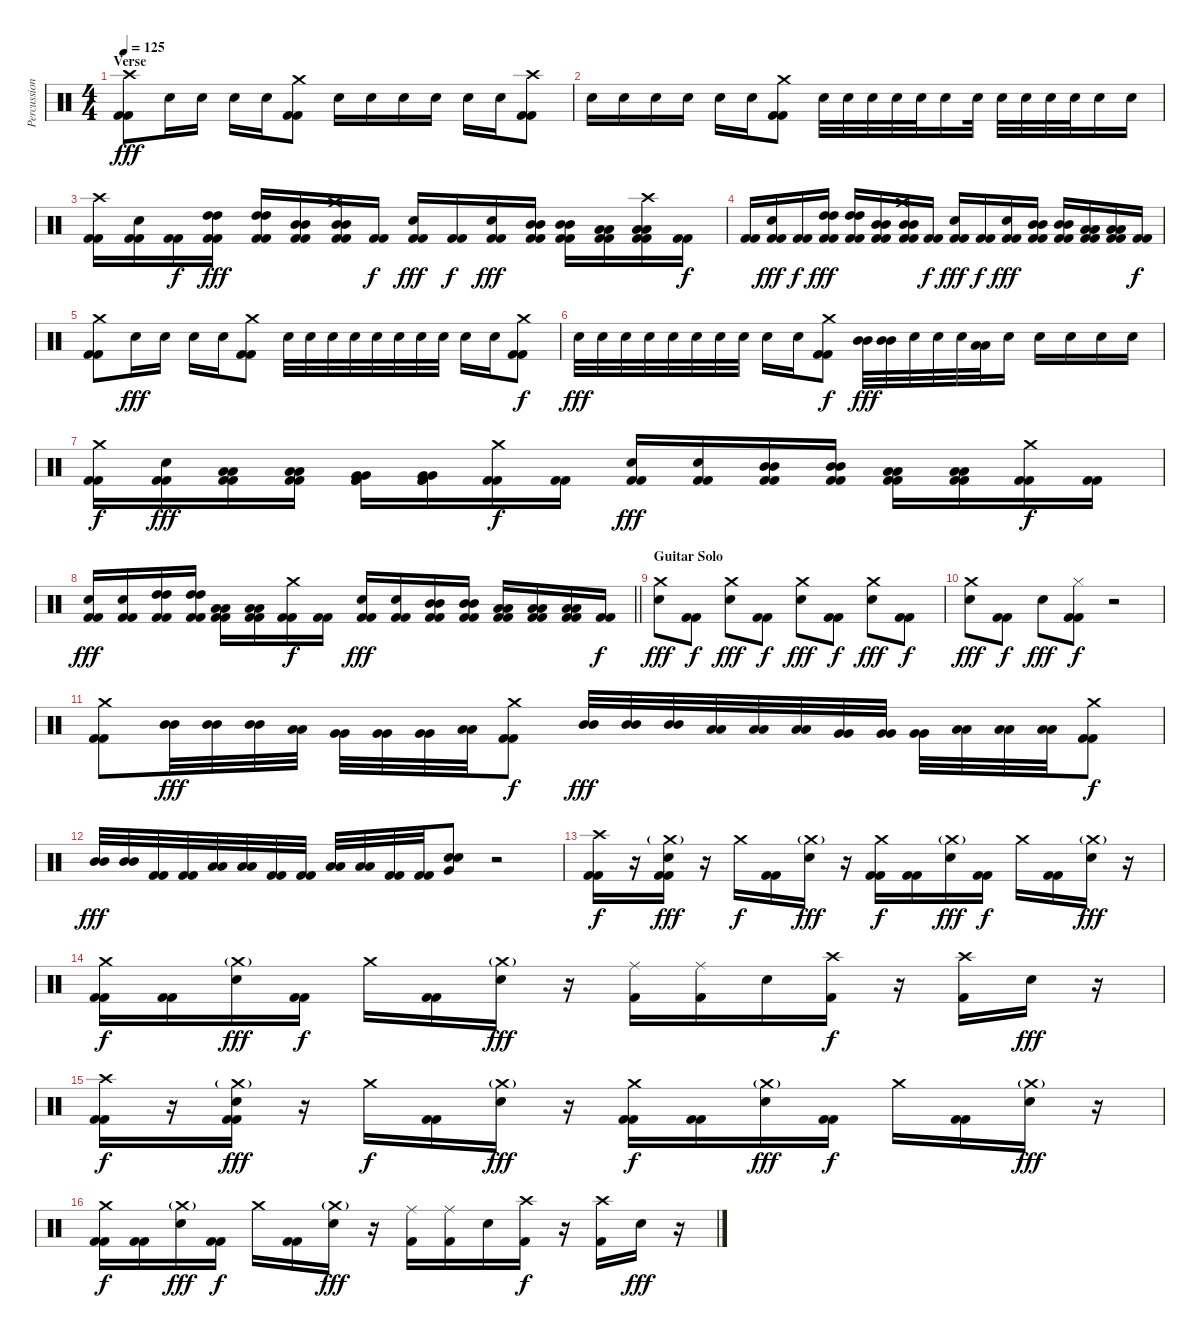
\track ("Percussion" "Percussion") {solo instrument percussion}
\staff {score}
\articulation defaults
\ts (4 4)
\section ("" "Verse")
\tempo 125
\clef neutral
\ks c
("Crash high (hit)" "Kick (hit) 2" "Kick (hit) 2").8{dy fff} "Electric Snare (hit)".16 "Electric Snare (hit)".16 "Electric Snare (hit)".16 "Electric Snare (hit)".16 ("Crash medium (hit)" "Kick (hit) 2" "Kick (hit) 2").8 "Electric Snare (hit)".16 "Electric Snare (hit)".16 "Electric Snare (hit)".16 "Electric Snare (hit)".16 "Electric Snare (hit)".16 "Electric Snare (hit)".16 ("Crash high (hit)" "Kick (hit) 2" "Kick (hit) 2").8 |
"Electric Snare (hit)".16 "Electric Snare (hit)".16 "Electric Snare (hit)".16 "Electric Snare (hit)".16 "Electric Snare (hit)".16 "Electric Snare (hit)".16 ("Crash medium (hit)" "Kick (hit) 2" "Kick (hit) 2").8 "Electric Snare (hit)".32 "Electric Snare (hit)".32 "Electric Snare (hit)".32 "Electric Snare (hit)".32 "Electric Snare (hit)".32 "Electric Snare (hit)".16 "Electric Snare (hit)".32 "Electric Snare (hit)".32 "Electric Snare (hit)".32 "Electric Snare (hit)".32 "Electric Snare (hit)".32 "Electric Snare (hit)".16 "Electric Snare (hit)".16 |
("Crash high (hit)" "Kick (hit) 2" "Kick (hit) 2").16 ("Electric Snare (hit)" "Kick (hit) 2" "Kick (hit) 2").16 ("Kick (hit) 2" "Kick (hit) 2").16{dy f} ("High Tom (hit)" "High Tom (hit)" "Kick (hit) 2" "Kick (hit) 2").16{dy fff} ("High Tom (hit)" "High Tom (hit)" "Kick (hit) 2" "Kick (hit) 2").16 ("Mid Tom (hit)" "Mid Tom (hit)" "Kick (hit) 2" "Kick (hit) 2").16 ("Crash medium (hit)" "Mid Tom (hit)" "Mid Tom (hit)" "Kick (hit) 2" "Kick (hit) 2").16 ("Kick (hit) 2" "Kick (hit) 2").16{dy f} ("Electric Snare (hit)" "Kick (hit) 2" "Kick (hit) 2").16{dy fff} ("Kick (hit) 2" "Kick (hit) 2").16{dy f} ("Electric Snare (hit)" "Kick (hit) 2" "Kick (hit) 2").16{dy fff} ("Mid Tom (hit)" "Mid Tom (hit)" "Kick (hit) 2" "Kick (hit) 2").16 ("Mid Tom (hit)" "Mid Tom (hit)" "Kick (hit) 2" "Kick (hit) 2").16 ("Low Tom (hit)" "Low Tom (hit)" "Kick (hit) 2" "Kick (hit) 2").16 ("Crash high (hit)" "Low Tom (hit)" "Low Tom (hit)" "Kick (hit) 2" "Kick (hit) 2").16 ("Kick (hit) 2" "Kick (hit) 2").16{dy f} |
("Kick (hit) 2" "Kick (hit) 2").16 ("Electric Snare (hit)" "Kick (hit) 2" "Kick (hit) 2").16{dy fff} ("Kick (hit) 2" "Kick (hit) 2").16{dy f} ("High Tom (hit)" "High Tom (hit)" "Kick (hit) 2" "Kick (hit) 2").16{dy fff} ("High Tom (hit)" "High Tom (hit)" "Kick (hit) 2" "Kick (hit) 2").16 ("Mid Tom (hit)" "Mid Tom (hit)" "Kick (hit) 2" "Kick (hit) 2").16 ("Crash medium (hit)" "Mid Tom (hit)" "Mid Tom (hit)" "Kick (hit) 2" "Kick (hit) 2").16 ("Kick (hit) 2" "Kick (hit) 2").16{dy f} ("Electric Snare (hit)" "Kick (hit) 2" "Kick (hit) 2").16{dy fff} ("Kick (hit) 2" "Kick (hit) 2").16{dy f} ("Electric Snare (hit)" "Kick (hit) 2" "Kick (hit) 2").16{dy fff} ("Mid Tom (hit)" "Mid Tom (hit)" "Kick (hit) 2" "Kick (hit) 2").16 ("Mid Tom (hit)" "Mid Tom (hit)" "Kick (hit) 2" "Kick (hit) 2").16 ("Low Tom (hit)" "Low Tom (hit)" "Kick (hit) 2" "Kick (hit) 2").16 ("Low Tom (hit)" "Low Tom (hit)" "Kick (hit) 2" "Kick (hit) 2").16 ("Kick (hit) 2" "Kick (hit) 2").16{dy f} |
("Crash medium (hit)" "Kick (hit) 2" "Kick (hit) 2").8 "Electric Snare (hit)".16{dy fff} "Electric Snare (hit)".16 "Electric Snare (hit)".16 "Electric Snare (hit)".16 ("Crash medium (hit)" "Kick (hit) 2" "Kick (hit) 2").8 "Electric Snare (hit)".32 "Electric Snare (hit)".32 "Electric Snare (hit)".32 "Electric Snare (hit)".32 "Electric Snare (hit)".32 "Electric Snare (hit)".32 "Electric Snare (hit)".32 "Electric Snare (hit)".32 "Electric Snare (hit)".16 "Electric Snare (hit)".16 ("Crash medium (hit)" "Kick (hit) 2" "Kick (hit) 2").8{dy f} |
"Electric Snare (hit)".32{dy fff} "Electric Snare (hit)".32 "Electric Snare (hit)".32 "Electric Snare (hit)".32 "Electric Snare (hit)".32 "Electric Snare (hit)".32 "Electric Snare (hit)".32 "Electric Snare (hit)".32 "Electric Snare (hit)".16 "Electric Snare (hit)".16 ("Crash medium (hit)" "Kick (hit) 2" "Kick (hit) 2").8{dy f} ("Mid Tom (hit)" "Mid Tom (hit)").32{dy fff} ("Mid Tom (hit)" "Mid Tom (hit)").32 "Electric Snare (hit)".32 "Electric Snare (hit)".32 "Electric Snare (hit)".32 ("Low Tom (hit)" "Low Tom (hit)").32 "Electric Snare (hit)".16 "Electric Snare (hit)".16 "Electric Snare (hit)".16 "Electric Snare (hit)".16 "Electric Snare (hit)".16 |
("Crash medium (hit)" "Kick (hit) 2" "Kick (hit) 2").16{dy f} ("Electric Snare (hit)" "Kick (hit) 2" "Kick (hit) 2").16{dy fff} ("Low Tom (hit)" "Low Tom (hit)" "Kick (hit) 2" "Kick (hit) 2").16 ("Low Tom (hit)" "Low Tom (hit)" "Kick (hit) 2" "Kick (hit) 2").16 ("Very Low Tom (hit)" "Very Low Tom (hit)" "Kick (hit) 2" "Kick (hit) 2").16 ("Very Low Tom (hit)" "Very Low Tom (hit)" "Kick (hit) 2" "Kick (hit) 2").16 ("Crash medium (hit)" "Kick (hit) 2" "Kick (hit) 2").16{dy f} ("Kick (hit) 2" "Kick (hit) 2").16 ("Electric Snare (hit)" "Kick (hit) 2" "Kick (hit) 2").16{dy fff} ("Electric Snare (hit)" "Kick (hit) 2" "Kick (hit) 2").16 ("Mid Tom (hit)" "Mid Tom (hit)" "Kick (hit) 2" "Kick (hit) 2").16 ("Mid Tom (hit)" "Mid Tom (hit)" "Kick (hit) 2" "Kick (hit) 2").16 ("Low Tom (hit)" "Low Tom (hit)" "Kick (hit) 2" "Kick (hit) 2").16 ("Low Tom (hit)" "Low Tom (hit)" "Kick (hit) 2" "Kick (hit) 2").16 ("Crash medium (hit)" "Kick (hit) 2" "Kick (hit) 2").16{dy f} ("Kick (hit) 2" "Kick (hit) 2").16 |
\barLineRight lightlight
("Electric Snare (hit)" "Kick (hit) 2" "Kick (hit) 2").16{dy fff} ("Electric Snare (hit)" "Kick (hit) 2" "Kick (hit) 2").16 ("High Tom (hit)" "High Tom (hit)" "Kick (hit) 2" "Kick (hit) 2").16 ("High Tom (hit)" "High Tom (hit)" "Kick (hit) 2" "Kick (hit) 2").16 ("Low Tom (hit)" "Low Tom (hit)" "Kick (hit) 2" "Kick (hit) 2").16 ("Low Tom (hit)" "Low Tom (hit)" "Kick (hit) 2" "Kick (hit) 2").16 ("Crash medium (hit)" "Kick (hit) 2" "Kick (hit) 2").16{dy f} ("Kick (hit) 2" "Kick (hit) 2").16 ("Electric Snare (hit)" "Kick (hit) 2" "Kick (hit) 2").16{dy fff} ("Electric Snare (hit)" "Kick (hit) 2" "Kick (hit) 2").16 ("Mid Tom (hit)" "Mid Tom (hit)" "Kick (hit) 2" "Kick (hit) 2").16 ("Mid Tom (hit)" "Mid Tom (hit)" "Kick (hit) 2" "Kick (hit) 2").16 ("Low Tom (hit)" "Low Tom (hit)" "Kick (hit) 2" "Kick (hit) 2").16 ("Low Tom (hit)" "Low Tom (hit)" "Kick (hit) 2" "Kick (hit) 2").16 ("Low Tom (hit)" "Low Tom (hit)" "Kick (hit) 2" "Kick (hit) 2").16 ("Kick (hit) 2" "Kick (hit) 2").16{dy f} |
\section ("" "Guitar Solo")
("Crash medium (hit)" "Electric Snare (hit)").8{dy fff} ("Kick (hit) 2" "Kick (hit) 2").8{dy f} ("Crash medium (hit)" "Electric Snare (hit)").8{dy fff} ("Kick (hit) 2" "Kick (hit) 2").8{dy f} ("Crash medium (hit)" "Electric Snare (hit)").8{dy fff} ("Kick (hit) 2" "Kick (hit) 2").8{dy f} ("Crash medium (hit)" "Electric Snare (hit)").8{dy fff} ("Kick (hit) 2" "Kick (hit) 2").8{dy f} |
("Crash medium (hit)" "Electric Snare (hit)").8{dy fff} ("Kick (hit) 2" "Kick (hit) 2").8{dy f} "Electric Snare (hit)".8{dy fff} ("Hi-Hat (closed)" "Kick (hit) 2" "Kick (hit) 2").8{dy f} r.2 |
("Crash medium (hit)" "Kick (hit) 2" "Kick (hit) 2").8 ("Mid Tom (hit)" "Mid Tom (hit)").32{dy fff} ("Mid Tom (hit)" "Mid Tom (hit)").32 ("Mid Tom (hit)" "Mid Tom (hit)").32 ("Low Tom (hit)" "Low Tom (hit)").32 ("Very Low Tom (hit)" "Very Low Tom (hit)").32 ("Very Low Tom (hit)" "Very Low Tom (hit)").32 ("Very Low Tom (hit)" "Very Low Tom (hit)").32 ("Low Floor Tom (hit)" "Low Floor Tom (hit)").32 ("Crash medium (hit)" "Kick (hit) 2" "Kick (hit) 2").8{dy f} ("Mid Tom (hit)" "Mid Tom (hit)").32{dy fff} ("Mid Tom (hit)" "Mid Tom (hit)").32 ("Mid Tom (hit)" "Mid Tom (hit)").32 ("Low Tom (hit)" "Low Tom (hit)").32 ("Low Tom (hit)" "Low Tom (hit)").32 ("Low Tom (hit)" "Low Tom (hit)").32 ("Very Low Tom (hit)" "Very Low Tom (hit)").32 ("Very Low Tom (hit)" "Very Low Tom (hit)").32 ("Very Low Tom (hit)" "Very Low Tom (hit)").32 ("Low Floor Tom (hit)" "Low Floor Tom (hit)").32 ("Low Floor Tom (hit)" "Low Floor Tom (hit)").32 ("Low Floor Tom (hit)" "Low Floor Tom (hit)").32 ("Crash medium (hit)" "Kick (hit) 2" "Kick (hit) 2").8{dy f} |
("Mid Tom (hit)" "Mid Tom (hit)").32{dy fff} ("Mid Tom (hit)" "Mid Tom (hit)").32 ("Kick (hit) 2" "Kick (hit) 2").32 ("Kick (hit) 2" "Kick (hit) 2").32 ("Low Tom (hit)" "Low Tom (hit)").32 ("Low Tom (hit)" "Low Tom (hit)").32 ("Kick (hit) 2" "Kick (hit) 2").32 ("Kick (hit) 2" "Kick (hit) 2").32 ("Low Tom (hit)" "Low Tom (hit)").32 ("Low Tom (hit)" "Low Tom (hit)").32 ("Kick (hit) 2" "Kick (hit) 2").32 ("Kick (hit) 2" "Kick (hit) 2").32 ("Electric Snare (hit)" "Electric Snare (hit)" "Very Low Tom (hit)").8 r.2 |
("Crash high (hit)" "Kick (hit) 2" "Kick (hit) 2").16{dy f} r.16 ("Crash medium (hit)"{g} "Electric Snare (hit)" "Kick (hit) 2" "Kick (hit) 2").16{dy fff} r.16 "Crash medium (hit)".16{dy f} ("Kick (hit) 2" "Kick (hit) 2").16 ("Crash medium (hit)"{g} "Electric Snare (hit)").16{dy fff} r.16 ("Crash medium (hit)" "Kick (hit) 2" "Kick (hit) 2").16{dy f} ("Kick (hit) 2" "Kick (hit) 2").16 ("Crash medium (hit)"{g} "Electric Snare (hit)").16{dy fff} ("Kick (hit) 2" "Kick (hit) 2").16{dy f} "Crash medium (hit)".16 ("Kick (hit) 2" "Kick (hit) 2").16 ("Crash medium (hit)"{g} "Electric Snare (hit)").16{dy fff} r.16 |
("Crash medium (hit)" "Kick (hit) 2" "Kick (hit) 2").16{dy f} ("Kick (hit) 2" "Kick (hit) 2").16 ("Crash medium (hit)"{g} "Electric Snare (hit)").16{dy fff} ("Kick (hit) 2" "Kick (hit) 2").16{dy f} "Crash medium (hit)".16 ("Kick (hit) 2" "Kick (hit) 2").16 ("Crash medium (hit)"{g} "Electric Snare (hit)").16{dy fff} r.16 ("Ride (middle)" "Kick (hit) 2").16 ("Ride (middle)" "Kick (hit) 2").16 "Electric Snare (hit)".16 ("Crash high (hit)" "Kick (hit) 2").16{dy f} r.16 ("Crash high (hit)" "Kick (hit) 2").16 "Electric Snare (hit)".16{dy fff} r.16 |
("Crash high (hit)" "Kick (hit) 2" "Kick (hit) 2").16{dy f} r.16 ("Crash medium (hit)"{g} "Electric Snare (hit)" "Kick (hit) 2" "Kick (hit) 2").16{dy fff} r.16 "Crash medium (hit)".16{dy f} ("Kick (hit) 2" "Kick (hit) 2").16 ("Crash medium (hit)"{g} "Electric Snare (hit)").16{dy fff} r.16 ("Crash medium (hit)" "Kick (hit) 2" "Kick (hit) 2").16{dy f} ("Kick (hit) 2" "Kick (hit) 2").16 ("Crash medium (hit)"{g} "Electric Snare (hit)").16{dy fff} ("Kick (hit) 2" "Kick (hit) 2").16{dy f} "Crash medium (hit)".16 ("Kick (hit) 2" "Kick (hit) 2").16 ("Crash medium (hit)"{g} "Electric Snare (hit)").16{dy fff} r.16 |
("Crash medium (hit)" "Kick (hit) 2" "Kick (hit) 2").16{dy f} ("Kick (hit) 2" "Kick (hit) 2").16 ("Crash medium (hit)"{g} "Electric Snare (hit)").16{dy fff} ("Kick (hit) 2" "Kick (hit) 2").16{dy f} "Crash medium (hit)".16 ("Kick (hit) 2" "Kick (hit) 2").16 ("Crash medium (hit)"{g} "Electric Snare (hit)").16{dy fff} r.16 ("Ride (middle)" "Kick (hit) 2").16 ("Ride (middle)" "Kick (hit) 2").16 "Electric Snare (hit)".16 ("Crash high (hit)" "Kick (hit) 2").16{dy f} r.16 ("Crash high (hit)" "Kick (hit) 2").16 "Electric Snare (hit)".16{dy fff} r.16
